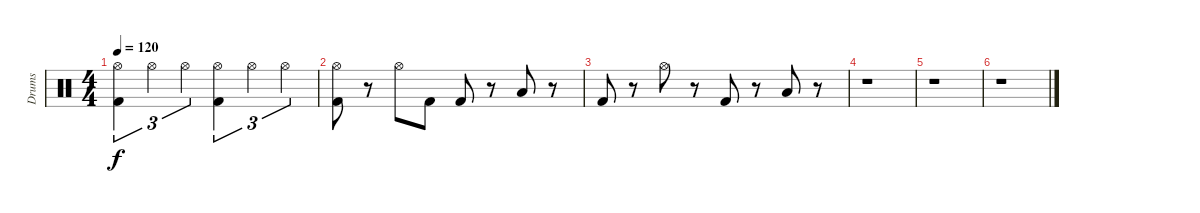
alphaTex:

\track ("Drums" "Drums") {instrument percussion}
\staff {score}
\articulation defaults
\ts (4 4)
\tempo 120
\clef neutral
\ks c
("Hi-Hat (open)" "Kick (hit) 2").4{tu (3 2) dy f} "Hi-Hat (open)".4{tu (3 2)} "Hi-Hat (open)".4{tu (3 2)} ("Hi-Hat (open)" "Kick (hit) 2").4{tu (3 2)} "Hi-Hat (open)".4{tu (3 2)} "Hi-Hat (open)".4{tu (3 2)} |
("Hi-Hat (open)" "Kick (hit) 2").8 r.8 "Hi-Hat (open)".8 "Kick (hit) 2".8 "Kick (hit) 2".8 r.8 "Low Floor Tom (hit)".8 r.8 |
"Kick (hit) 2".8 r.8 "Hi-Hat (open)".8 r.8 "Kick (hit) 2".8 r.8 "Low Floor Tom (hit)".8 r.8 |
r.1 |
r.1 |
r.1
